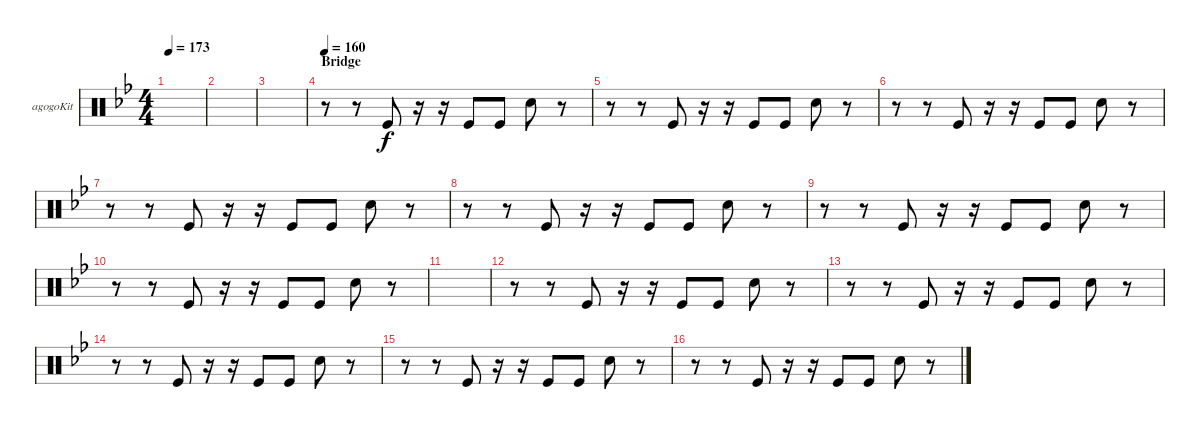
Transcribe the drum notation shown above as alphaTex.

\defaultSystemsLayout 4
\bracketExtendMode groupsimilarinstruments
\firstSystemTrackNameOrientation horizontal
\otherSystemsTrackNameOrientation horizontal
\track ("Triangle" "agogoKit") {instrument percussion}
\staff {score}
\articulation defaults
\ts (4 4)
\tempo 173
\clef neutral
\ks bb
|
|
|
\section ("" "Bridge")
\tempo 160
r.8 r.8 "Kick (hit)".8 r.16 r.16 "Kick (hit)".8 "Kick (hit)".8 "Snare (hit) 2".8 r.8 |
r.8 r.8 "Kick (hit)".8 r.16 r.16 "Kick (hit)".8 "Kick (hit)".8 "Snare (hit) 2".8 r.8 |
r.8 r.8 "Kick (hit)".8 r.16 r.16 "Kick (hit)".8 "Kick (hit)".8 "Snare (hit) 2".8 r.8 |
r.8 r.8 "Kick (hit)".8 r.16 r.16 "Kick (hit)".8 "Kick (hit)".8 "Snare (hit) 2".8 r.8 |
r.8 r.8 "Kick (hit)".8 r.16 r.16 "Kick (hit)".8 "Kick (hit)".8 "Snare (hit) 2".8 r.8 |
r.8 r.8 "Kick (hit)".8 r.16 r.16 "Kick (hit)".8 "Kick (hit)".8 "Snare (hit) 2".8 r.8 |
r.8 r.8 "Kick (hit)".8 r.16 r.16 "Kick (hit)".8 "Kick (hit)".8 "Snare (hit) 2".8 r.8 |
|
r.8 r.8 "Kick (hit)".8 r.16 r.16 "Kick (hit)".8 "Kick (hit)".8 "Snare (hit) 2".8 r.8 |
r.8 r.8 "Kick (hit)".8 r.16 r.16 "Kick (hit)".8 "Kick (hit)".8 "Snare (hit) 2".8 r.8 |
r.8 r.8 "Kick (hit)".8 r.16 r.16 "Kick (hit)".8 "Kick (hit)".8 "Snare (hit) 2".8 r.8 |
r.8 r.8 "Kick (hit)".8 r.16 r.16 "Kick (hit)".8 "Kick (hit)".8 "Snare (hit) 2".8 r.8 |
r.8 r.8 "Kick (hit)".8 r.16 r.16 "Kick (hit)".8 "Kick (hit)".8 "Snare (hit) 2".8 r.8
